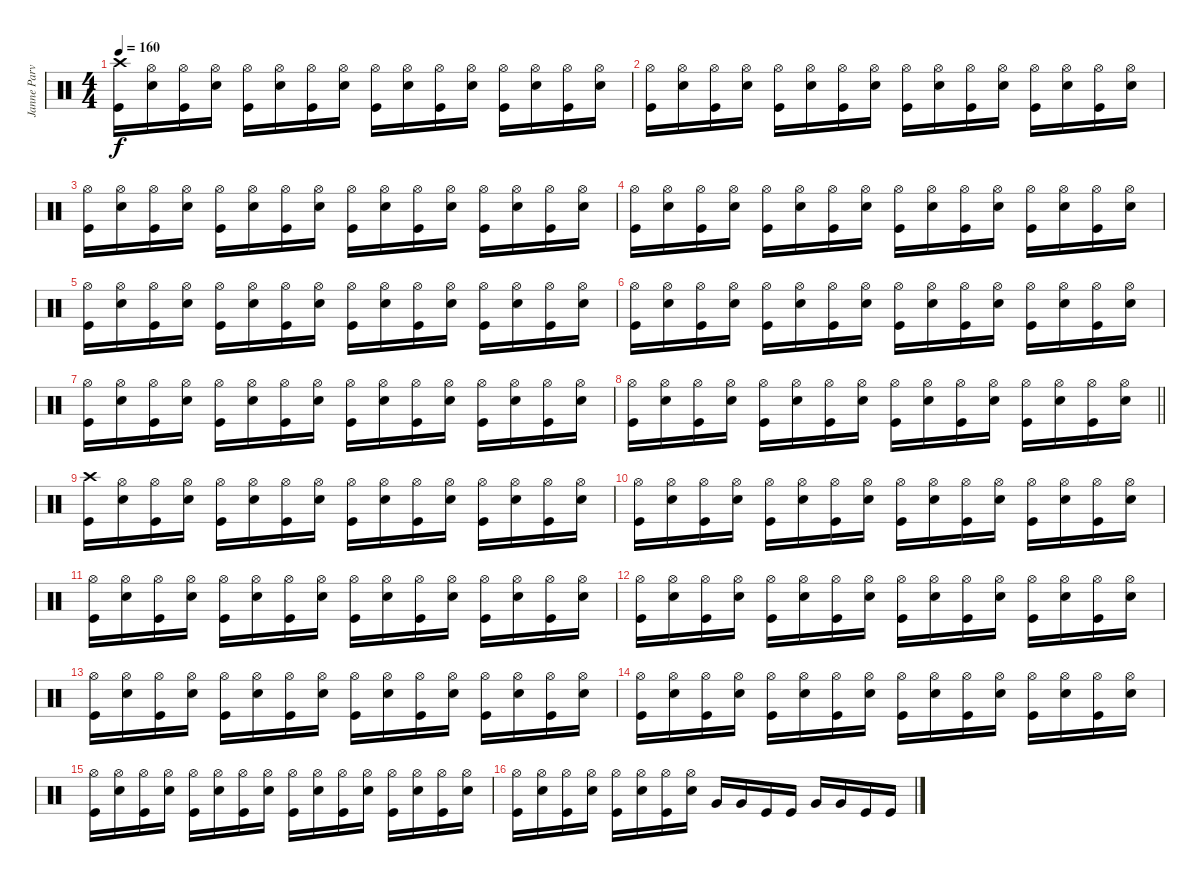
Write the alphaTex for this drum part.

\track ("Janne Parviainen" "Janne Parv") {instrument percussion}
\staff {score}
\articulation defaults
\ts (4 4)
\tempo 160
\clef neutral
\ks c
("Crash high (hit)" "Kick (hit)").16{dy f} ("Hi-Hat (open)" "Electric Snare (hit)").16 ("Hi-Hat (open)" "Kick (hit)").16 ("Hi-Hat (open)" "Electric Snare (hit)").16 ("Hi-Hat (open)" "Kick (hit)").16 ("Hi-Hat (open)" "Electric Snare (hit)").16 ("Hi-Hat (open)" "Kick (hit)").16 ("Hi-Hat (open)" "Electric Snare (hit)").16 ("Hi-Hat (open)" "Kick (hit)").16 ("Hi-Hat (open)" "Electric Snare (hit)").16 ("Hi-Hat (open)" "Kick (hit)").16 ("Hi-Hat (open)" "Electric Snare (hit)").16 ("Hi-Hat (open)" "Kick (hit)").16 ("Hi-Hat (open)" "Electric Snare (hit)").16 ("Hi-Hat (open)" "Kick (hit)").16 ("Hi-Hat (open)" "Electric Snare (hit)").16 |
("Hi-Hat (open)" "Kick (hit)").16 ("Hi-Hat (open)" "Electric Snare (hit)").16 ("Hi-Hat (open)" "Kick (hit)").16 ("Hi-Hat (open)" "Electric Snare (hit)").16 ("Hi-Hat (open)" "Kick (hit)").16 ("Hi-Hat (open)" "Electric Snare (hit)").16 ("Hi-Hat (open)" "Kick (hit)").16 ("Hi-Hat (open)" "Electric Snare (hit)").16 ("Hi-Hat (open)" "Kick (hit)").16 ("Hi-Hat (open)" "Electric Snare (hit)").16 ("Hi-Hat (open)" "Kick (hit)").16 ("Hi-Hat (open)" "Electric Snare (hit)").16 ("Hi-Hat (open)" "Kick (hit)").16 ("Hi-Hat (open)" "Electric Snare (hit)").16 ("Hi-Hat (open)" "Kick (hit)").16 ("Hi-Hat (open)" "Electric Snare (hit)").16 |
("Hi-Hat (open)" "Kick (hit)").16 ("Hi-Hat (open)" "Electric Snare (hit)").16 ("Hi-Hat (open)" "Kick (hit)").16 ("Hi-Hat (open)" "Electric Snare (hit)").16 ("Hi-Hat (open)" "Kick (hit)").16 ("Hi-Hat (open)" "Electric Snare (hit)").16 ("Hi-Hat (open)" "Kick (hit)").16 ("Hi-Hat (open)" "Electric Snare (hit)").16 ("Hi-Hat (open)" "Kick (hit)").16 ("Hi-Hat (open)" "Electric Snare (hit)").16 ("Hi-Hat (open)" "Kick (hit)").16 ("Hi-Hat (open)" "Electric Snare (hit)").16 ("Hi-Hat (open)" "Kick (hit)").16 ("Hi-Hat (open)" "Electric Snare (hit)").16 ("Hi-Hat (open)" "Kick (hit)").16 ("Hi-Hat (open)" "Electric Snare (hit)").16 |
("Hi-Hat (open)" "Kick (hit)").16 ("Hi-Hat (open)" "Electric Snare (hit)").16 ("Hi-Hat (open)" "Kick (hit)").16 ("Hi-Hat (open)" "Electric Snare (hit)").16 ("Hi-Hat (open)" "Kick (hit)").16 ("Hi-Hat (open)" "Electric Snare (hit)").16 ("Hi-Hat (open)" "Kick (hit)").16 ("Hi-Hat (open)" "Electric Snare (hit)").16 ("Hi-Hat (open)" "Kick (hit)").16 ("Hi-Hat (open)" "Electric Snare (hit)").16 ("Hi-Hat (open)" "Kick (hit)").16 ("Hi-Hat (open)" "Electric Snare (hit)").16 ("Hi-Hat (open)" "Kick (hit)").16 ("Hi-Hat (open)" "Electric Snare (hit)").16 ("Hi-Hat (open)" "Kick (hit)").16 ("Hi-Hat (open)" "Electric Snare (hit)").16 |
("Hi-Hat (open)" "Kick (hit)").16 ("Hi-Hat (open)" "Electric Snare (hit)").16 ("Hi-Hat (open)" "Kick (hit)").16 ("Hi-Hat (open)" "Electric Snare (hit)").16 ("Hi-Hat (open)" "Kick (hit)").16 ("Hi-Hat (open)" "Electric Snare (hit)").16 ("Hi-Hat (open)" "Kick (hit)").16 ("Hi-Hat (open)" "Electric Snare (hit)").16 ("Hi-Hat (open)" "Kick (hit)").16 ("Hi-Hat (open)" "Electric Snare (hit)").16 ("Hi-Hat (open)" "Kick (hit)").16 ("Hi-Hat (open)" "Electric Snare (hit)").16 ("Hi-Hat (open)" "Kick (hit)").16 ("Hi-Hat (open)" "Electric Snare (hit)").16 ("Hi-Hat (open)" "Kick (hit)").16 ("Hi-Hat (open)" "Electric Snare (hit)").16 |
("Hi-Hat (open)" "Kick (hit)").16 ("Hi-Hat (open)" "Electric Snare (hit)").16 ("Hi-Hat (open)" "Kick (hit)").16 ("Hi-Hat (open)" "Electric Snare (hit)").16 ("Hi-Hat (open)" "Kick (hit)").16 ("Hi-Hat (open)" "Electric Snare (hit)").16 ("Hi-Hat (open)" "Kick (hit)").16 ("Hi-Hat (open)" "Electric Snare (hit)").16 ("Hi-Hat (open)" "Kick (hit)").16 ("Hi-Hat (open)" "Electric Snare (hit)").16 ("Hi-Hat (open)" "Kick (hit)").16 ("Hi-Hat (open)" "Electric Snare (hit)").16 ("Hi-Hat (open)" "Kick (hit)").16 ("Hi-Hat (open)" "Electric Snare (hit)").16 ("Hi-Hat (open)" "Kick (hit)").16 ("Hi-Hat (open)" "Electric Snare (hit)").16 |
("Hi-Hat (open)" "Kick (hit)").16 ("Hi-Hat (open)" "Electric Snare (hit)").16 ("Hi-Hat (open)" "Kick (hit)").16 ("Hi-Hat (open)" "Electric Snare (hit)").16 ("Hi-Hat (open)" "Kick (hit)").16 ("Hi-Hat (open)" "Electric Snare (hit)").16 ("Hi-Hat (open)" "Kick (hit)").16 ("Hi-Hat (open)" "Electric Snare (hit)").16 ("Hi-Hat (open)" "Kick (hit)").16 ("Hi-Hat (open)" "Electric Snare (hit)").16 ("Hi-Hat (open)" "Kick (hit)").16 ("Hi-Hat (open)" "Electric Snare (hit)").16 ("Hi-Hat (open)" "Kick (hit)").16 ("Hi-Hat (open)" "Electric Snare (hit)").16 ("Hi-Hat (open)" "Kick (hit)").16 ("Hi-Hat (open)" "Electric Snare (hit)").16 |
\barLineRight lightlight
("Hi-Hat (open)" "Kick (hit)").16 ("Hi-Hat (open)" "Electric Snare (hit)").16 ("Hi-Hat (open)" "Kick (hit)").16 ("Hi-Hat (open)" "Electric Snare (hit)").16 ("Hi-Hat (open)" "Kick (hit)").16 ("Hi-Hat (open)" "Electric Snare (hit)").16 ("Hi-Hat (open)" "Kick (hit)").16 ("Hi-Hat (open)" "Electric Snare (hit)").16 ("Hi-Hat (open)" "Kick (hit)").16 ("Hi-Hat (open)" "Electric Snare (hit)").16 ("Hi-Hat (open)" "Kick (hit)").16 ("Hi-Hat (open)" "Electric Snare (hit)").16 ("Hi-Hat (open)" "Kick (hit)").16 ("Hi-Hat (open)" "Electric Snare (hit)").16 ("Hi-Hat (open)" "Kick (hit)").16 ("Hi-Hat (open)" "Electric Snare (hit)").16 |
("Crash high (hit)" "Kick (hit)").16 ("Hi-Hat (open)" "Electric Snare (hit)").16 ("Hi-Hat (open)" "Kick (hit)").16 ("Hi-Hat (open)" "Electric Snare (hit)").16 ("Hi-Hat (open)" "Kick (hit)").16 ("Hi-Hat (open)" "Electric Snare (hit)").16 ("Hi-Hat (open)" "Kick (hit)").16 ("Hi-Hat (open)" "Electric Snare (hit)").16 ("Hi-Hat (open)" "Kick (hit)").16 ("Hi-Hat (open)" "Electric Snare (hit)").16 ("Hi-Hat (open)" "Kick (hit)").16 ("Hi-Hat (open)" "Electric Snare (hit)").16 ("Hi-Hat (open)" "Kick (hit)").16 ("Hi-Hat (open)" "Electric Snare (hit)").16 ("Hi-Hat (open)" "Kick (hit)").16 ("Hi-Hat (open)" "Electric Snare (hit)").16 |
("Hi-Hat (open)" "Kick (hit)").16 ("Hi-Hat (open)" "Electric Snare (hit)").16 ("Hi-Hat (open)" "Kick (hit)").16 ("Hi-Hat (open)" "Electric Snare (hit)").16 ("Hi-Hat (open)" "Kick (hit)").16 ("Hi-Hat (open)" "Electric Snare (hit)").16 ("Hi-Hat (open)" "Kick (hit)").16 ("Hi-Hat (open)" "Electric Snare (hit)").16 ("Hi-Hat (open)" "Kick (hit)").16 ("Hi-Hat (open)" "Electric Snare (hit)").16 ("Hi-Hat (open)" "Kick (hit)").16 ("Hi-Hat (open)" "Electric Snare (hit)").16 ("Hi-Hat (open)" "Kick (hit)").16 ("Hi-Hat (open)" "Electric Snare (hit)").16 ("Hi-Hat (open)" "Kick (hit)").16 ("Hi-Hat (open)" "Electric Snare (hit)").16 |
("Hi-Hat (open)" "Kick (hit)").16 ("Hi-Hat (open)" "Electric Snare (hit)").16 ("Hi-Hat (open)" "Kick (hit)").16 ("Hi-Hat (open)" "Electric Snare (hit)").16 ("Hi-Hat (open)" "Kick (hit)").16 ("Hi-Hat (open)" "Electric Snare (hit)").16 ("Hi-Hat (open)" "Kick (hit)").16 ("Hi-Hat (open)" "Electric Snare (hit)").16 ("Hi-Hat (open)" "Kick (hit)").16 ("Hi-Hat (open)" "Electric Snare (hit)").16 ("Hi-Hat (open)" "Kick (hit)").16 ("Hi-Hat (open)" "Electric Snare (hit)").16 ("Hi-Hat (open)" "Kick (hit)").16 ("Hi-Hat (open)" "Electric Snare (hit)").16 ("Hi-Hat (open)" "Kick (hit)").16 ("Hi-Hat (open)" "Electric Snare (hit)").16 |
("Hi-Hat (open)" "Kick (hit)").16 ("Hi-Hat (open)" "Electric Snare (hit)").16 ("Hi-Hat (open)" "Kick (hit)").16 ("Hi-Hat (open)" "Electric Snare (hit)").16 ("Hi-Hat (open)" "Kick (hit)").16 ("Hi-Hat (open)" "Electric Snare (hit)").16 ("Hi-Hat (open)" "Kick (hit)").16 ("Hi-Hat (open)" "Electric Snare (hit)").16 ("Hi-Hat (open)" "Kick (hit)").16 ("Hi-Hat (open)" "Electric Snare (hit)").16 ("Hi-Hat (open)" "Kick (hit)").16 ("Hi-Hat (open)" "Electric Snare (hit)").16 ("Hi-Hat (open)" "Kick (hit)").16 ("Hi-Hat (open)" "Electric Snare (hit)").16 ("Hi-Hat (open)" "Kick (hit)").16 ("Hi-Hat (open)" "Electric Snare (hit)").16 |
("Hi-Hat (open)" "Kick (hit)").16 ("Hi-Hat (open)" "Electric Snare (hit)").16 ("Hi-Hat (open)" "Kick (hit)").16 ("Hi-Hat (open)" "Electric Snare (hit)").16 ("Hi-Hat (open)" "Kick (hit)").16 ("Hi-Hat (open)" "Electric Snare (hit)").16 ("Hi-Hat (open)" "Kick (hit)").16 ("Hi-Hat (open)" "Electric Snare (hit)").16 ("Hi-Hat (open)" "Kick (hit)").16 ("Hi-Hat (open)" "Electric Snare (hit)").16 ("Hi-Hat (open)" "Kick (hit)").16 ("Hi-Hat (open)" "Electric Snare (hit)").16 ("Hi-Hat (open)" "Kick (hit)").16 ("Hi-Hat (open)" "Electric Snare (hit)").16 ("Hi-Hat (open)" "Kick (hit)").16 ("Hi-Hat (open)" "Electric Snare (hit)").16 |
("Hi-Hat (open)" "Kick (hit)").16 ("Hi-Hat (open)" "Electric Snare (hit)").16 ("Hi-Hat (open)" "Kick (hit)").16 ("Hi-Hat (open)" "Electric Snare (hit)").16 ("Hi-Hat (open)" "Kick (hit)").16 ("Hi-Hat (open)" "Electric Snare (hit)").16 ("Hi-Hat (open)" "Kick (hit)").16 ("Hi-Hat (open)" "Electric Snare (hit)").16 ("Hi-Hat (open)" "Kick (hit)").16 ("Hi-Hat (open)" "Electric Snare (hit)").16 ("Hi-Hat (open)" "Kick (hit)").16 ("Hi-Hat (open)" "Electric Snare (hit)").16 ("Hi-Hat (open)" "Kick (hit)").16 ("Hi-Hat (open)" "Electric Snare (hit)").16 ("Hi-Hat (open)" "Kick (hit)").16 ("Hi-Hat (open)" "Electric Snare (hit)").16 |
("Hi-Hat (open)" "Kick (hit)").16 ("Hi-Hat (open)" "Electric Snare (hit)").16 ("Hi-Hat (open)" "Kick (hit)").16 ("Hi-Hat (open)" "Electric Snare (hit)").16 ("Hi-Hat (open)" "Kick (hit)").16 ("Hi-Hat (open)" "Electric Snare (hit)").16 ("Hi-Hat (open)" "Kick (hit)").16 ("Hi-Hat (open)" "Electric Snare (hit)").16 ("Hi-Hat (open)" "Kick (hit)").16 ("Hi-Hat (open)" "Electric Snare (hit)").16 ("Hi-Hat (open)" "Kick (hit)").16 ("Hi-Hat (open)" "Electric Snare (hit)").16 ("Hi-Hat (open)" "Kick (hit)").16 ("Hi-Hat (open)" "Electric Snare (hit)").16 ("Hi-Hat (open)" "Kick (hit)").16 ("Hi-Hat (open)" "Electric Snare (hit)").16 |
("Hi-Hat (open)" "Kick (hit)").16 ("Hi-Hat (open)" "Electric Snare (hit)").16 ("Hi-Hat (open)" "Kick (hit)").16 ("Hi-Hat (open)" "Electric Snare (hit)").16 ("Hi-Hat (open)" "Kick (hit)").16 ("Hi-Hat (open)" "Electric Snare (hit)").16 ("Hi-Hat (open)" "Kick (hit)").16 ("Hi-Hat (open)" "Electric Snare (hit)").16 "Very Low Tom (hit)".16 "Very Low Tom (hit)".16 "Kick (hit)".16 "Kick (hit)".16 "Very Low Tom (hit)".16 "Very Low Tom (hit)".16 "Kick (hit)".16 "Kick (hit)".16
